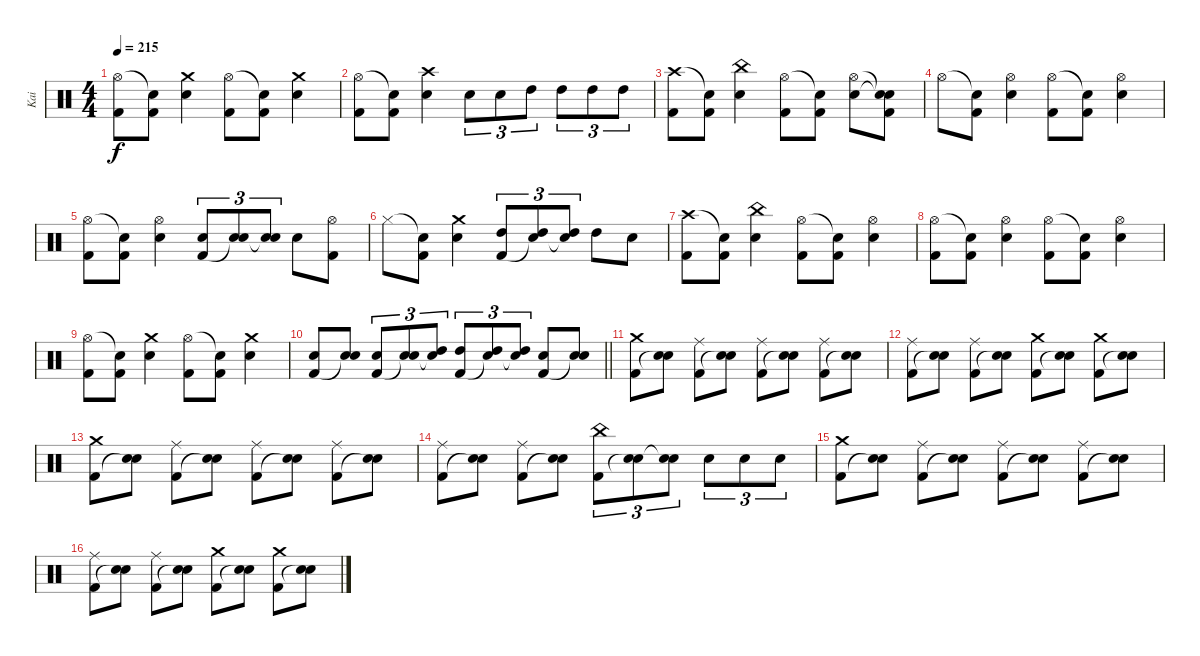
\track ("Kai" "Kai") {instrument percussion}
\staff {score}
\articulation defaults
\ts (4 4)
\tempo 215
\clef neutral
\ks c
("Hi-Hat (open)" "Kick (hit) 2").8{dy f} ("Snare (hit)"{t} "Kick (hit) 2").8 ("Crash medium (hit)" "Snare (hit) 2").4 ("Hi-Hat (open)" "Kick (hit) 2").8 ("Snare (hit)"{t} "Kick (hit) 2").8 ("Crash medium (hit)" "Snare (hit) 2").4 |
("Hi-Hat (open)" "Kick (hit) 2").8 ("Snare (hit)"{t} "Kick (hit) 2").8 ("Crash high (hit)" "Snare (hit) 2").4 "Snare (hit) 2".8{tu (3 2)} "Snare (hit) 2".8{tu (3 2)} "High Tom (hit)".8{tu (3 2)} "High Tom (hit)".8{tu (3 2)} "High Tom (hit)".8{tu (3 2)} "High Tom (hit)".8{tu (3 2)} |
("Crash high (hit)" "Kick (hit) 2").8 ("Snare (hit)"{t} "Kick (hit) 2").8 ("China (hit)" "Snare (hit) 2").4 ("Hi-Hat (open)" "Kick (hit) 2").8 ("Snare (hit)"{t} "Kick (hit) 2").8 ("Hi-Hat (open)" "Snare (hit) 2").8 ("Snare (hit)"{t} "Snare (hit)"{t} "Kick (hit) 2").8 |
"Hi-Hat (open)".8 ("Snare (hit)"{t} "Kick (hit) 2").8 ("Hi-Hat (open)" "Snare (hit) 2").4 ("Hi-Hat (open)" "Kick (hit) 2").8 ("Snare (hit)"{t} "Kick (hit) 2").8 ("Hi-Hat (open)" "Snare (hit) 2").4 |
("Hi-Hat (open)" "Kick (hit) 2").8 ("Snare (hit)"{t} "Kick (hit) 2").8 ("Hi-Hat (open)" "Snare (hit) 2").4 ("Snare (hit) 2" "Kick (hit) 2").8{tu (3 2)} ("Snare (hit) 2" "Snare (hit)"{t}).8{tu (3 2)} ("Snare (hit) 2" "Snare (hit)"{t}).8{tu (3 2)} "Snare (hit) 2".8 ("Hi-Hat (open)" "Kick (hit) 2").8 |
"Hi-Hat (closed)".8 ("Snare (hit)"{t} "Kick (hit) 2").8 ("Crash medium (hit)" "Snare (hit) 2").4 ("High Tom (hit)" "Kick (hit) 2").8{tu (3 2)} ("High Tom (hit)" "Snare (hit)"{t}).8{tu (3 2)} ("High Tom (hit)" "Snare (hit)"{t}).8{tu (3 2)} "High Tom (hit)".8 "Snare (hit) 2".8 |
("Crash high (hit)" "Kick (hit) 2").8 ("Snare (hit)"{t} "Kick (hit) 2").8 ("China (hit)" "Snare (hit) 2").4 ("Hi-Hat (open)" "Kick (hit) 2").8 ("Snare (hit)"{t} "Kick (hit) 2").8 ("Hi-Hat (open)" "Snare (hit) 2").4 |
("Hi-Hat (open)" "Kick (hit) 2").8 ("Snare (hit)"{t} "Kick (hit) 2").8 ("Hi-Hat (open)" "Snare (hit) 2").4 ("Hi-Hat (open)" "Kick (hit) 2").8 ("Snare (hit)"{t} "Kick (hit) 2").8 ("Hi-Hat (open)" "Snare (hit) 2").4 |
("Hi-Hat (open)" "Kick (hit) 2").8 ("Snare (hit)"{t} "Kick (hit) 2").8 ("Crash medium (hit)" "Snare (hit) 2").4 ("Hi-Hat (open)" "Kick (hit) 2").8 ("Snare (hit)"{t} "Kick (hit) 2").8 ("Crash medium (hit)" "Snare (hit) 2").4 |
\barLineRight lightlight
("Snare (hit) 2" "Kick (hit) 2").8 ("Snare (hit) 2" "Snare (hit)"{t}).8 ("Snare (hit) 2" "Kick (hit) 2").8{tu (3 2)} ("Snare (hit) 2" "Snare (hit)"{t}).8{tu (3 2)} ("High Tom (hit)" "Snare (hit)"{t}).8{tu (3 2)} ("High Tom (hit)" "Kick (hit) 2").8{tu (3 2)} ("High Tom (hit)" "Snare (hit)"{t}).8{tu (3 2)} ("High Tom (hit)" "Snare (hit)"{t}).8{tu (3 2)} ("Snare (hit) 2" "Kick (hit) 2").8 ("Snare (hit) 2" "Snare (hit)"{t}).8 |
("Crash medium (hit)" "Kick (hit) 2").8 ("Snare (hit) 2" "Snare (hit)"{t}).8 ("Ride (middle)" "Kick (hit) 2").8 ("Snare (hit) 2" "Snare (hit)"{t}).8 ("Ride (middle)" "Kick (hit) 2").8 ("Snare (hit) 2" "Snare (hit)"{t}).8 ("Ride (middle)" "Kick (hit) 2").8 ("Snare (hit) 2" "Snare (hit)"{t}).8 |
("Ride (middle)" "Kick (hit) 2").8 ("Snare (hit) 2" "Snare (hit)"{t}).8 ("Ride (middle)" "Kick (hit) 2").8 ("Snare (hit) 2" "Snare (hit)"{t}).8 ("Crash medium (hit)" "Kick (hit) 2").8 ("Snare (hit) 2" "Snare (hit)"{t}).8 ("Crash medium (hit)" "Kick (hit) 2").8 ("Snare (hit) 2" "Snare (hit)"{t}).8 |
("Crash medium (hit)" "Kick (hit) 2").8 ("Snare (hit) 2" "Snare (hit)"{t}).8 ("Ride (middle)" "Kick (hit) 2").8 ("Snare (hit) 2" "Snare (hit)"{t}).8 ("Ride (middle)" "Kick (hit) 2").8 ("Snare (hit) 2" "Snare (hit)"{t}).8 ("Ride (middle)" "Kick (hit) 2").8 ("Snare (hit) 2" "Snare (hit)"{t}).8 |
("Ride (middle)" "Kick (hit) 2").8 ("Snare (hit) 2" "Snare (hit)"{t}).8 ("Ride (middle)" "Kick (hit) 2").8 ("Snare (hit) 2" "Snare (hit)"{t}).8 ("China (hit)" "Kick (hit) 2").8{tu (3 2)} ("Snare (hit) 2" "Snare (hit)"{t}).8{tu (3 2)} ("Snare (hit) 2" "Snare (hit)"{t}).8{tu (3 2)} "Snare (hit) 2".8{tu (3 2)} "Snare (hit) 2".8{tu (3 2)} "Snare (hit) 2".8{tu (3 2)} |
("Crash medium (hit)" "Kick (hit) 2").8 ("Snare (hit) 2" "Snare (hit)"{t}).8 ("Ride (middle)" "Kick (hit) 2").8 ("Snare (hit) 2" "Snare (hit)"{t}).8 ("Ride (middle)" "Kick (hit) 2").8 ("Snare (hit) 2" "Snare (hit)"{t}).8 ("Ride (middle)" "Kick (hit) 2").8 ("Snare (hit) 2" "Snare (hit)"{t}).8 |
("Ride (middle)" "Kick (hit) 2").8 ("Snare (hit) 2" "Snare (hit)"{t}).8 ("Ride (middle)" "Kick (hit) 2").8 ("Snare (hit) 2" "Snare (hit)"{t}).8 ("Crash medium (hit)" "Kick (hit) 2").8 ("Snare (hit) 2" "Snare (hit)"{t}).8 ("Crash medium (hit)" "Kick (hit) 2").8 ("Snare (hit) 2" "Snare (hit)"{t}).8
